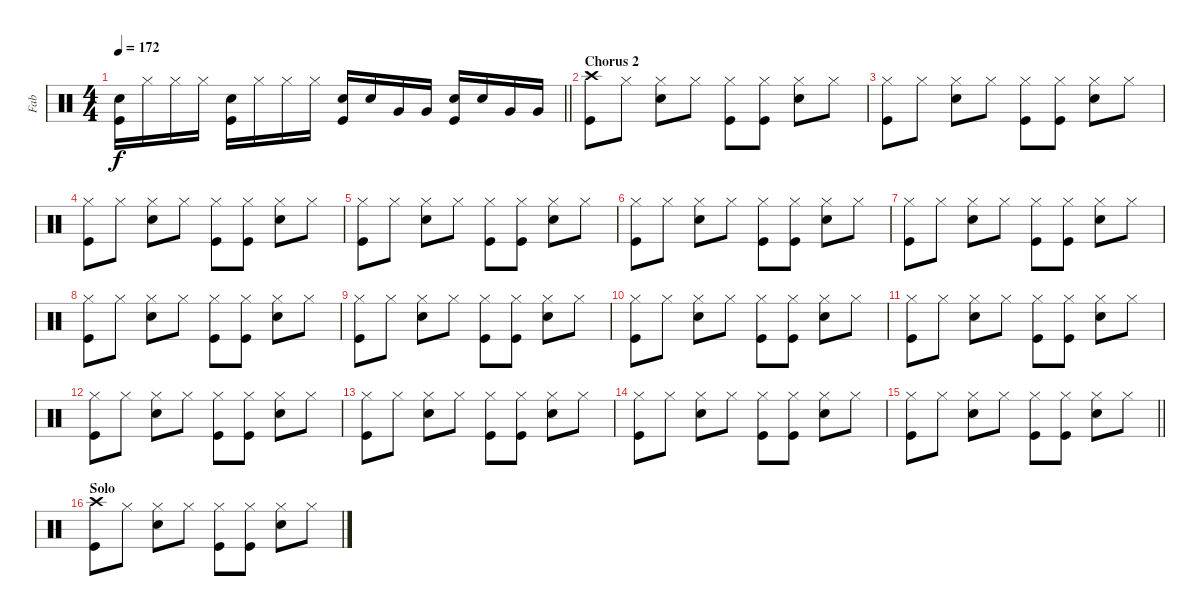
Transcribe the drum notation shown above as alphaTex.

\track ("Fab" "Fab") {instrument percussion}
\staff {score}
\articulation defaults
\ts (4 4)
\tempo 172
\clef neutral
\barLineRight lightlight
\ks c
("Snare (hit) 2" "Kick (hit)").16{dy f} "Hi-Hat (closed)".16 "Hi-Hat (closed)".16 "Hi-Hat (closed)".16 ("Snare (hit) 2" "Kick (hit)").16 "Hi-Hat (closed)".16 "Hi-Hat (closed)".16 "Hi-Hat (closed)".16 ("Snare (hit) 2" "Kick (hit)").16 "Snare (hit) 2".16 "Very Low Tom (hit)".16 "Very Low Tom (hit)".16 ("Snare (hit) 2" "Kick (hit)").16 "Snare (hit) 2".16 "Very Low Tom (hit)".16 "Very Low Tom (hit)".16 |
\section ("" "Chorus 2")
("Crash high (hit)" "Kick (hit)").8 "Hi-Hat (closed)".8 ("Hi-Hat (closed)" "Snare (hit) 2").8 "Hi-Hat (closed)".8 ("Hi-Hat (closed)" "Kick (hit)").8 ("Hi-Hat (closed)" "Kick (hit)").8 ("Hi-Hat (closed)" "Snare (hit) 2").8 "Hi-Hat (closed)".8 |
("Hi-Hat (closed)" "Kick (hit)").8 "Hi-Hat (closed)".8 ("Hi-Hat (closed)" "Snare (hit) 2").8 "Hi-Hat (closed)".8 ("Hi-Hat (closed)" "Kick (hit)").8 ("Hi-Hat (closed)" "Kick (hit)").8 ("Hi-Hat (closed)" "Snare (hit) 2").8 "Hi-Hat (closed)".8 |
("Hi-Hat (closed)" "Kick (hit)").8 "Hi-Hat (closed)".8 ("Hi-Hat (closed)" "Snare (hit) 2").8 "Hi-Hat (closed)".8 ("Hi-Hat (closed)" "Kick (hit)").8 ("Hi-Hat (closed)" "Kick (hit)").8 ("Hi-Hat (closed)" "Snare (hit) 2").8 "Hi-Hat (closed)".8 |
("Hi-Hat (closed)" "Kick (hit)").8 "Hi-Hat (closed)".8 ("Hi-Hat (closed)" "Snare (hit) 2").8 "Hi-Hat (closed)".8 ("Hi-Hat (closed)" "Kick (hit)").8 ("Hi-Hat (closed)" "Kick (hit)").8 ("Hi-Hat (closed)" "Snare (hit) 2").8 "Hi-Hat (closed)".8 |
("Hi-Hat (closed)" "Kick (hit)").8 "Hi-Hat (closed)".8 ("Hi-Hat (closed)" "Snare (hit) 2").8 "Hi-Hat (closed)".8 ("Hi-Hat (closed)" "Kick (hit)").8 ("Hi-Hat (closed)" "Kick (hit)").8 ("Hi-Hat (closed)" "Snare (hit) 2").8 "Hi-Hat (closed)".8 |
("Hi-Hat (closed)" "Kick (hit)").8 "Hi-Hat (closed)".8 ("Hi-Hat (closed)" "Snare (hit) 2").8 "Hi-Hat (closed)".8 ("Hi-Hat (closed)" "Kick (hit)").8 ("Hi-Hat (closed)" "Kick (hit)").8 ("Hi-Hat (closed)" "Snare (hit) 2").8 "Hi-Hat (closed)".8 |
("Hi-Hat (closed)" "Kick (hit)").8 "Hi-Hat (closed)".8 ("Hi-Hat (closed)" "Snare (hit) 2").8 "Hi-Hat (closed)".8 ("Hi-Hat (closed)" "Kick (hit)").8 ("Hi-Hat (closed)" "Kick (hit)").8 ("Hi-Hat (closed)" "Snare (hit) 2").8 "Hi-Hat (closed)".8 |
("Hi-Hat (closed)" "Kick (hit)").8 "Hi-Hat (closed)".8 ("Hi-Hat (closed)" "Snare (hit) 2").8 "Hi-Hat (closed)".8 ("Hi-Hat (closed)" "Kick (hit)").8 ("Hi-Hat (closed)" "Kick (hit)").8 ("Hi-Hat (closed)" "Snare (hit) 2").8 "Hi-Hat (closed)".8 |
("Hi-Hat (closed)" "Kick (hit)").8 "Hi-Hat (closed)".8 ("Hi-Hat (closed)" "Snare (hit) 2").8 "Hi-Hat (closed)".8 ("Hi-Hat (closed)" "Kick (hit)").8 ("Hi-Hat (closed)" "Kick (hit)").8 ("Hi-Hat (closed)" "Snare (hit) 2").8 "Hi-Hat (closed)".8 |
("Hi-Hat (closed)" "Kick (hit)").8 "Hi-Hat (closed)".8 ("Hi-Hat (closed)" "Snare (hit) 2").8 "Hi-Hat (closed)".8 ("Hi-Hat (closed)" "Kick (hit)").8 ("Hi-Hat (closed)" "Kick (hit)").8 ("Hi-Hat (closed)" "Snare (hit) 2").8 "Hi-Hat (closed)".8 |
("Hi-Hat (closed)" "Kick (hit)").8 "Hi-Hat (closed)".8 ("Hi-Hat (closed)" "Snare (hit) 2").8 "Hi-Hat (closed)".8 ("Hi-Hat (closed)" "Kick (hit)").8 ("Hi-Hat (closed)" "Kick (hit)").8 ("Hi-Hat (closed)" "Snare (hit) 2").8 "Hi-Hat (closed)".8 |
("Hi-Hat (closed)" "Kick (hit)").8 "Hi-Hat (closed)".8 ("Hi-Hat (closed)" "Snare (hit) 2").8 "Hi-Hat (closed)".8 ("Hi-Hat (closed)" "Kick (hit)").8 ("Hi-Hat (closed)" "Kick (hit)").8 ("Hi-Hat (closed)" "Snare (hit) 2").8 "Hi-Hat (closed)".8 |
("Hi-Hat (closed)" "Kick (hit)").8 "Hi-Hat (closed)".8 ("Hi-Hat (closed)" "Snare (hit) 2").8 "Hi-Hat (closed)".8 ("Hi-Hat (closed)" "Kick (hit)").8 ("Hi-Hat (closed)" "Kick (hit)").8 ("Hi-Hat (closed)" "Snare (hit) 2").8 "Hi-Hat (closed)".8 |
\barLineRight lightlight
("Hi-Hat (closed)" "Kick (hit)").8 "Hi-Hat (closed)".8 ("Hi-Hat (closed)" "Snare (hit) 2").8 "Hi-Hat (closed)".8 ("Hi-Hat (closed)" "Kick (hit)").8 ("Hi-Hat (closed)" "Kick (hit)").8 ("Hi-Hat (closed)" "Snare (hit) 2").8 "Hi-Hat (closed)".8 |
\section ("" "Solo")
("Crash high (hit)" "Kick (hit)").8 "Hi-Hat (closed)".8 ("Hi-Hat (closed)" "Snare (hit) 2").8 "Hi-Hat (closed)".8 ("Hi-Hat (closed)" "Kick (hit)").8 ("Hi-Hat (closed)" "Kick (hit)").8 ("Hi-Hat (closed)" "Snare (hit) 2").8 "Hi-Hat (closed)".8
